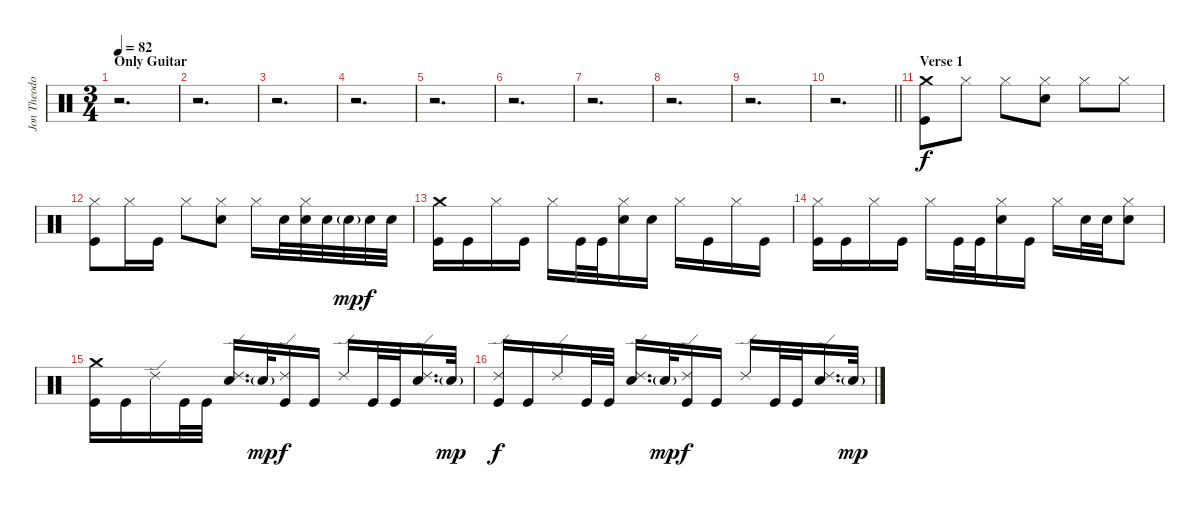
\track ("Jon Theodore" "Jon Theodo") {instrument percussion}
\staff {score}
\articulation defaults
\ts (3 4)
\section ("" "Only Guitar")
\tempo 82
\clef neutral
\ks c
r.2{d dy f} |
r.2{d} |
r.2{d} |
r.2{d} |
r.2{d} |
r.2{d} |
r.2{d} |
r.2{d} |
r.2{d} |
\barLineRight lightlight
r.2{d} |
\section ("" "Verse 1")
("Crash medium (hit)" "Kick (hit)").8 "Hi-Hat (closed)".8 "Hi-Hat (closed)".8 ("Hi-Hat (closed)" "Snare (hit) 2").8 "Hi-Hat (closed)".8 "Hi-Hat (closed)".8 |
("Hi-Hat (closed)" "Kick (hit)").8 "Hi-Hat (closed)".16 "Kick (hit)".16 "Hi-Hat (closed)".8 ("Hi-Hat (closed)" "Snare (hit) 2").8 "Hi-Hat (closed)".16 "Snare (hit) 2".32 ("Hi-Hat (closed)" "Snare (hit) 2").32 "Snare (hit) 2".32 "Snare (hit) 2"{g}.32{dy mp} "Snare (hit) 2".32{dy f} "Snare (hit) 2".32 |
("Crash medium (hit)" "Kick (hit)").16 "Kick (hit)".16 "Hi-Hat (closed)".16 "Kick (hit)".16 "Hi-Hat (closed)".16 "Kick (hit)".32 "Kick (hit)".32 ("Hi-Hat (closed)" "Snare (hit) 2").16 "Snare (hit) 2".16 "Hi-Hat (closed)".16 "Kick (hit)".16 "Hi-Hat (closed)".16 "Kick (hit)".16 |
("Hi-Hat (closed)" "Kick (hit)").16 "Kick (hit)".16 "Hi-Hat (closed)".16 "Kick (hit)".16 "Hi-Hat (closed)".16 "Kick (hit)".32 "Kick (hit)".32 ("Hi-Hat (closed)" "Snare (hit) 2").16 "Kick (hit)".16 "Hi-Hat (closed)".16 "Snare (hit) 2".32 "Snare (hit) 2".32 ("Hi-Hat (closed)" "Snare (hit) 2").8 |
("Crash medium (hit)" "Kick (hit)").16 "Kick (hit)".16 "Ride (edge) 2".16 "Kick (hit)".32 "Kick (hit)".32 ("Ride (edge) 2" "Snare (hit) 2").16{d} "Snare (hit) 2"{g}.32{dy mp} ("Ride (edge) 2" "Kick (hit)").16{dy f} "Kick (hit)".16 "Ride (edge) 2".16 "Kick (hit)".32 "Kick (hit)".32 ("Ride (edge) 2" "Snare (hit) 2").16{d} "Snare (hit) 2"{g}.32{dy mp} |
("Ride (edge) 2" "Kick (hit)").16{dy f} "Kick (hit)".16 "Ride (edge) 2".16 "Kick (hit)".32 "Kick (hit)".32 ("Ride (edge) 2" "Snare (hit) 2").16{d} "Snare (hit) 2"{g}.32{dy mp} ("Ride (edge) 2" "Kick (hit)").16{dy f} "Kick (hit)".16 "Ride (edge) 2".16 "Kick (hit)".32 "Kick (hit)".32 ("Ride (edge) 2" "Snare (hit) 2").16{d} "Snare (hit) 2"{g}.32{dy mp}
